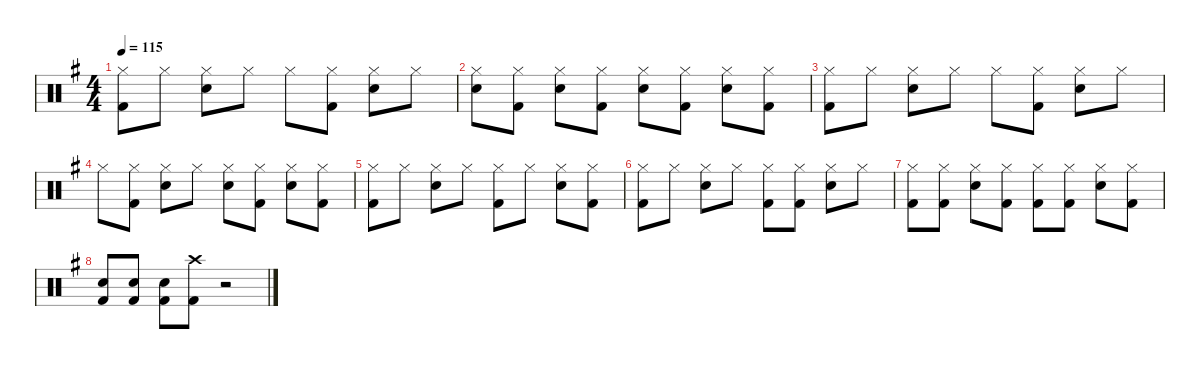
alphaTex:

\defaultSystemsLayout 8
\hideDynamics
\bracketExtendMode nobrackets
\singleTrackTrackNamePolicy hidden
\multiTrackTrackNamePolicy hidden
\otherSystemsTrackNameOrientation horizontal
\track ("Drums" "drm.") {defaultSystemsLayout 4 instrument percussion}
\staff {score}
\articulation defaults
\ts (4 4)
\tempo 115
\clef neutral
\ks g
("Hi-Hat (closed)"{acc forcenatural} "Kick (hit) 2"{acc forcenatural}).8{dy f beam Down} "Hi-Hat (closed)"{acc forcenatural}.8{beam Down} ("Hi-Hat (closed)"{acc forcenatural} "Snare (hit) 2"{acc forcenatural}).8{beam Down} "Hi-Hat (closed)"{acc forcenatural}.8{beam Down} "Hi-Hat (closed)"{acc forcenatural}.8{beam Down} ("Hi-Hat (closed)"{acc forcenatural} "Kick (hit) 2"{acc forcenatural}).8{beam Down} ("Hi-Hat (closed)"{acc forcenatural} "Snare (hit) 2"{acc forcenatural}).8{beam Down} "Hi-Hat (closed)"{acc forcenatural}.8{beam Down} |
("Hi-Hat (closed)"{acc forcenatural} "Snare (hit) 2"{acc forcenatural}).8{beam Down} ("Hi-Hat (closed)"{acc forcenatural} "Kick (hit) 2"{acc forcenatural}).8{beam Down} ("Hi-Hat (closed)"{acc forcenatural} "Snare (hit) 2"{acc forcenatural}).8{beam Down} ("Hi-Hat (closed)"{acc forcenatural} "Kick (hit) 2"{acc forcenatural}).8{beam Down} ("Hi-Hat (closed)"{acc forcenatural} "Snare (hit) 2"{acc forcenatural}).8{beam Down} ("Hi-Hat (closed)"{acc forcenatural} "Kick (hit) 2"{acc forcenatural}).8{beam Down} ("Hi-Hat (closed)"{acc forcenatural} "Snare (hit) 2"{acc forcenatural}).8{beam Down} ("Hi-Hat (closed)"{acc forcenatural} "Kick (hit) 2"{acc forcenatural}).8{beam Down} |
("Hi-Hat (closed)"{acc forcenatural} "Kick (hit) 2"{acc forcenatural}).8{beam Down} "Hi-Hat (closed)"{acc forcenatural}.8{beam Down} ("Hi-Hat (closed)"{acc forcenatural} "Snare (hit) 2"{acc forcenatural}).8{beam Down} "Hi-Hat (closed)"{acc forcenatural}.8{beam Down} "Hi-Hat (closed)"{acc forcenatural}.8{beam Down} ("Hi-Hat (closed)"{acc forcenatural} "Kick (hit) 2"{acc forcenatural}).8{beam Down} ("Hi-Hat (closed)"{acc forcenatural} "Snare (hit) 2"{acc forcenatural}).8{beam Down} "Hi-Hat (closed)"{acc forcenatural}.8{beam Down} |
"Hi-Hat (closed)"{acc forcenatural}.8{beam Down} ("Hi-Hat (closed)"{acc forcenatural} "Kick (hit) 2"{acc forcenatural}).8{beam Down} ("Hi-Hat (closed)"{acc forcenatural} "Snare (hit) 2"{acc forcenatural}).8{beam Down} "Hi-Hat (closed)"{acc forcenatural}.8{beam Down} ("Hi-Hat (closed)"{acc forcenatural} "Snare (hit) 2"{acc forcenatural}).8{beam Down} ("Hi-Hat (closed)"{acc forcenatural} "Kick (hit) 2"{acc forcenatural}).8{beam Down} ("Hi-Hat (closed)"{acc forcenatural} "Snare (hit) 2"{acc forcenatural}).8{beam Down} ("Hi-Hat (closed)"{acc forcenatural} "Kick (hit) 2"{acc forcenatural}).8{beam Down} |
("Hi-Hat (closed)"{acc forcenatural} "Kick (hit) 2"{acc forcenatural}).8{beam Down} "Hi-Hat (closed)"{acc forcenatural}.8{beam Down} ("Hi-Hat (closed)"{acc forcenatural} "Snare (hit) 2"{acc forcenatural}).8{beam Down} "Hi-Hat (closed)"{acc forcenatural}.8{beam Down} ("Hi-Hat (closed)"{acc forcenatural} "Kick (hit) 2"{acc forcenatural}).8{beam Down} "Hi-Hat (closed)"{acc forcenatural}.8{beam Down} ("Hi-Hat (closed)"{acc forcenatural} "Snare (hit) 2"{acc forcenatural}).8{beam Down} ("Hi-Hat (closed)"{acc forcenatural} "Kick (hit) 2"{acc forcenatural}).8{beam Down} |
("Hi-Hat (closed)"{acc forcenatural} "Kick (hit) 2"{acc forcenatural}).8{beam Down} "Hi-Hat (closed)"{acc forcenatural}.8{beam Down} ("Hi-Hat (closed)"{acc forcenatural} "Snare (hit) 2"{acc forcenatural}).8{beam Down} "Hi-Hat (closed)"{acc forcenatural}.8{beam Down} ("Hi-Hat (closed)"{acc forcenatural} "Kick (hit) 2"{acc forcenatural}).8{beam Down} ("Hi-Hat (closed)"{acc forcenatural} "Kick (hit) 2"{acc forcenatural}).8{beam Down} ("Hi-Hat (closed)"{acc forcenatural} "Snare (hit) 2"{acc forcenatural}).8{beam Down} "Hi-Hat (closed)"{acc forcenatural}.8{beam Down} |
("Hi-Hat (closed)"{acc forcenatural} "Kick (hit) 2"{acc forcenatural}).8{beam Down} ("Hi-Hat (closed)"{acc forcenatural} "Kick (hit) 2"{acc forcenatural}).8{beam Down} ("Hi-Hat (closed)"{acc forcenatural} "Snare (hit) 2"{acc forcenatural}).8{beam Down} ("Hi-Hat (closed)"{acc forcenatural} "Kick (hit) 2"{acc forcenatural}).8{beam Down} ("Hi-Hat (closed)"{acc forcenatural} "Kick (hit) 2"{acc forcenatural}).8{beam Down} ("Hi-Hat (closed)"{acc forcenatural} "Kick (hit) 2"{acc forcenatural}).8{beam Down} ("Hi-Hat (closed)"{acc forcenatural} "Snare (hit) 2"{acc forcenatural}).8{beam Down} ("Hi-Hat (closed)"{acc forcenatural} "Kick (hit) 2"{acc forcenatural}).8{beam Down} |
("Snare (hit) 2"{acc forcenatural} "Kick (hit) 2"{acc forcenatural}).8{beam Up} ("Snare (hit) 2"{acc forcenatural} "Kick (hit) 2"{acc forcenatural}).8{beam Up} ("Snare (hit) 2"{acc forcenatural} "Kick (hit) 2"{acc forcenatural}).8{beam Down} ("Crash high (hit)"{acc forcenatural} "Kick (hit) 2"{acc forcenatural}).8{beam Down} r.2{beam Down}
